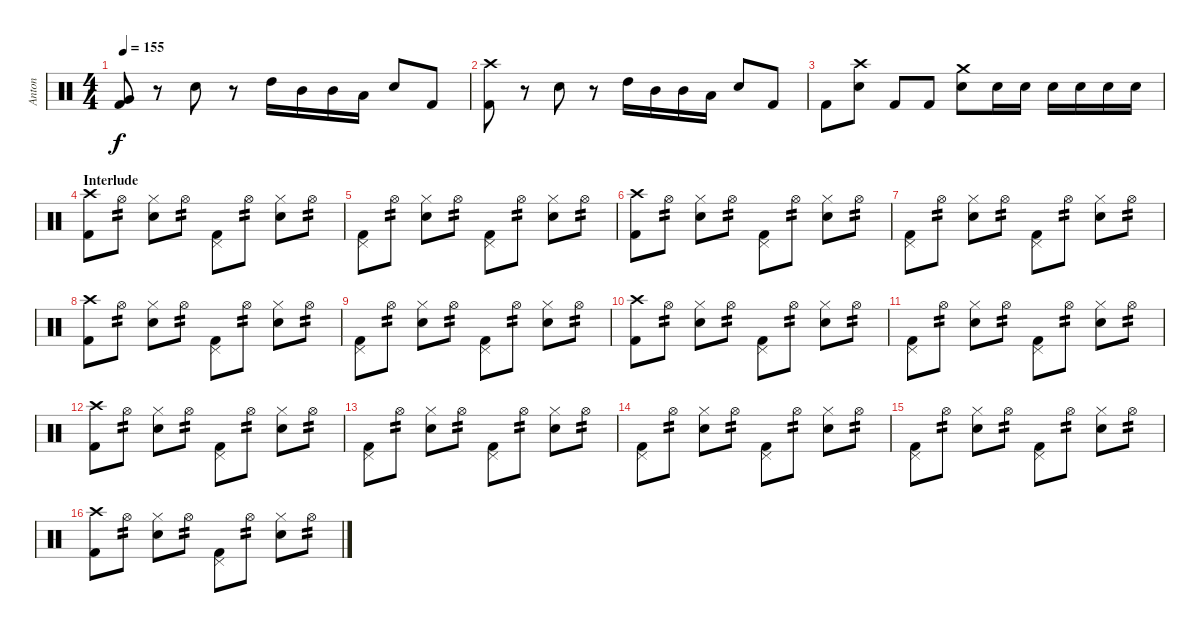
\track ("Anton" "Anton") {instrument percussion}
\staff {score}
\articulation defaults
\ts (4 4)
\tempo 155
\clef neutral
\ks c
("Kick (hit) 2" "Very Low Tom (hit)").8{dy f} r.8 "Snare (hit) 2".8 r.8 "High Tom (hit)".16 "Mid Tom (hit)".16 "Mid Tom (hit)".16 "Low Tom (hit)".16 "Snare (hit) 2".8 "Kick (hit) 2".8 |
("Kick (hit) 2" "Crash high (hit)").8 r.8 "Snare (hit) 2".8 r.8 "High Tom (hit)".16 "Mid Tom (hit)".16 "Mid Tom (hit)".16 "Low Tom (hit)".16 "Snare (hit) 2".8 "Kick (hit) 2".8 |
"Kick (hit) 2".8 ("Snare (hit) 2" "Crash high (hit)").8 "Kick (hit) 2".8 "Kick (hit) 2".8 ("Snare (hit) 2" "Crash medium (hit)").8 "Snare (hit) 2".16 "Snare (hit) 2".16 "Snare (hit) 2".16 "Snare (hit) 2".16 "Snare (hit) 2".16 "Snare (hit) 2".16 |
\section ("" "Interlude")
("Kick (hit) 2" "Crash high (hit)").8 "Hi-Hat (open)".8{tp 2} ("Electric Snare (hit)" "Hi-Hat (closed)").8 "Hi-Hat (open)".8{tp 2} ("Kick (hit) 2" "Pedal Hi-Hat (hit)").8 "Hi-Hat (open)".8{tp 2} ("Electric Snare (hit)" "Hi-Hat (closed)").8 "Hi-Hat (open)".8{tp 2} |
("Kick (hit) 2" "Pedal Hi-Hat (hit)").8 "Hi-Hat (open)".8{tp 2} ("Electric Snare (hit)" "Hi-Hat (closed)").8 "Hi-Hat (open)".8{tp 2} ("Kick (hit) 2" "Pedal Hi-Hat (hit)").8 "Hi-Hat (open)".8{tp 2} ("Electric Snare (hit)" "Hi-Hat (closed)").8 "Hi-Hat (open)".8{tp 2} |
("Kick (hit) 2" "Crash high (hit)").8 "Hi-Hat (open)".8{tp 2} ("Electric Snare (hit)" "Hi-Hat (closed)").8 "Hi-Hat (open)".8{tp 2} ("Kick (hit) 2" "Pedal Hi-Hat (hit)").8 "Hi-Hat (open)".8{tp 2} ("Electric Snare (hit)" "Hi-Hat (closed)").8 "Hi-Hat (open)".8{tp 2} |
("Kick (hit) 2" "Pedal Hi-Hat (hit)").8 "Hi-Hat (open)".8{tp 2} ("Electric Snare (hit)" "Hi-Hat (closed)").8 "Hi-Hat (open)".8{tp 2} ("Kick (hit) 2" "Pedal Hi-Hat (hit)").8 "Hi-Hat (open)".8{tp 2} ("Electric Snare (hit)" "Hi-Hat (closed)").8 "Hi-Hat (open)".8{tp 2} |
("Kick (hit) 2" "Crash high (hit)").8 "Hi-Hat (open)".8{tp 2} ("Electric Snare (hit)" "Hi-Hat (closed)").8 "Hi-Hat (open)".8{tp 2} ("Kick (hit) 2" "Pedal Hi-Hat (hit)").8 "Hi-Hat (open)".8{tp 2} ("Electric Snare (hit)" "Hi-Hat (closed)").8 "Hi-Hat (open)".8{tp 2} |
("Kick (hit) 2" "Pedal Hi-Hat (hit)").8 "Hi-Hat (open)".8{tp 2} ("Electric Snare (hit)" "Hi-Hat (closed)").8 "Hi-Hat (open)".8{tp 2} ("Kick (hit) 2" "Pedal Hi-Hat (hit)").8 "Hi-Hat (open)".8{tp 2} ("Electric Snare (hit)" "Hi-Hat (closed)").8 "Hi-Hat (open)".8{tp 2} |
("Kick (hit) 2" "Crash high (hit)").8 "Hi-Hat (open)".8{tp 2} ("Electric Snare (hit)" "Hi-Hat (closed)").8 "Hi-Hat (open)".8{tp 2} ("Kick (hit) 2" "Pedal Hi-Hat (hit)").8 "Hi-Hat (open)".8{tp 2} ("Electric Snare (hit)" "Hi-Hat (closed)").8 "Hi-Hat (open)".8{tp 2} |
("Kick (hit) 2" "Pedal Hi-Hat (hit)").8 "Hi-Hat (open)".8{tp 2} ("Electric Snare (hit)" "Hi-Hat (closed)").8 "Hi-Hat (open)".8{tp 2} ("Kick (hit) 2" "Pedal Hi-Hat (hit)").8 "Hi-Hat (open)".8{tp 2} ("Electric Snare (hit)" "Hi-Hat (closed)").8 "Hi-Hat (open)".8{tp 2} |
("Kick (hit) 2" "Crash high (hit)").8 "Hi-Hat (open)".8{tp 2} ("Electric Snare (hit)" "Hi-Hat (closed)").8 "Hi-Hat (open)".8{tp 2} ("Kick (hit) 2" "Pedal Hi-Hat (hit)").8 "Hi-Hat (open)".8{tp 2} ("Electric Snare (hit)" "Hi-Hat (closed)").8 "Hi-Hat (open)".8{tp 2} |
("Kick (hit) 2" "Pedal Hi-Hat (hit)").8 "Hi-Hat (open)".8{tp 2} ("Electric Snare (hit)" "Hi-Hat (closed)").8 "Hi-Hat (open)".8{tp 2} ("Kick (hit) 2" "Pedal Hi-Hat (hit)").8 "Hi-Hat (open)".8{tp 2} ("Electric Snare (hit)" "Hi-Hat (closed)").8 "Hi-Hat (open)".8{tp 2} |
("Kick (hit) 2" "Pedal Hi-Hat (hit)").8 "Hi-Hat (open)".8{tp 2} ("Electric Snare (hit)" "Hi-Hat (closed)").8 "Hi-Hat (open)".8{tp 2} ("Kick (hit) 2" "Pedal Hi-Hat (hit)").8 "Hi-Hat (open)".8{tp 2} ("Electric Snare (hit)" "Hi-Hat (closed)").8 "Hi-Hat (open)".8{tp 2} |
("Kick (hit) 2" "Pedal Hi-Hat (hit)").8 "Hi-Hat (open)".8{tp 2} ("Electric Snare (hit)" "Hi-Hat (closed)").8 "Hi-Hat (open)".8{tp 2} ("Kick (hit) 2" "Pedal Hi-Hat (hit)").8 "Hi-Hat (open)".8{tp 2} ("Electric Snare (hit)" "Hi-Hat (closed)").8 "Hi-Hat (open)".8{tp 2} |
("Kick (hit) 2" "Crash high (hit)").8 "Hi-Hat (open)".8{tp 2} ("Electric Snare (hit)" "Hi-Hat (closed)").8 "Hi-Hat (open)".8{tp 2} ("Kick (hit) 2" "Pedal Hi-Hat (hit)").8 "Hi-Hat (open)".8{tp 2} ("Electric Snare (hit)" "Hi-Hat (closed)").8 "Hi-Hat (open)".8{tp 2}
